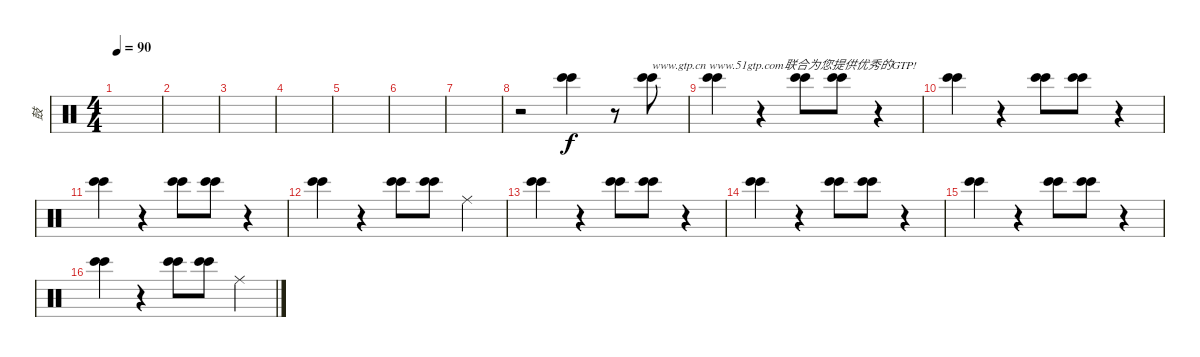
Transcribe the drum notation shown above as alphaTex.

\track ("鼓" "鼓") {instrument percussion}
\staff {score}
\articulation defaults
\ts (4 4)
\tempo 90
\clef neutral
\ks c
|
|
|
|
|
|
|
r.2 ("Bongo High (hit)" "Bongo High (hit)").4 r.8 ("Bongo High (hit)" "Bongo High (hit)").8{txt "www.gtp.cn www.51gtp.com联合为您提供优秀的GTP!"} |
("Bongo High (hit)" "Bongo High (hit)").4 r.4 ("Bongo High (hit)" "Bongo High (hit)").8 ("Bongo High (hit)" "Bongo High (hit)").8 r.4 |
("Bongo High (hit)" "Bongo High (hit)").4 r.4 ("Bongo High (hit)" "Bongo High (hit)").8 ("Bongo High (hit)" "Bongo High (hit)").8 r.4 |
("Bongo High (hit)" "Bongo High (hit)").4 r.4 ("Bongo High (hit)" "Bongo High (hit)").8 ("Bongo High (hit)" "Bongo High (hit)").8 r.4 |
("Bongo High (hit)" "Bongo High (hit)").4 r.4 ("Bongo High (hit)" "Bongo High (hit)").8 ("Bongo High (hit)" "Bongo High (hit)").8 "Ride (middle)".4 |
("Bongo High (hit)" "Bongo High (hit)").4 r.4 ("Bongo High (hit)" "Bongo High (hit)").8 ("Bongo High (hit)" "Bongo High (hit)").8 r.4 |
("Bongo High (hit)" "Bongo High (hit)").4 r.4 ("Bongo High (hit)" "Bongo High (hit)").8 ("Bongo High (hit)" "Bongo High (hit)").8 r.4 |
("Bongo High (hit)" "Bongo High (hit)").4 r.4 ("Bongo High (hit)" "Bongo High (hit)").8 ("Bongo High (hit)" "Bongo High (hit)").8 r.4 |
("Bongo High (hit)" "Bongo High (hit)").4 r.4 ("Bongo High (hit)" "Bongo High (hit)").8 ("Bongo High (hit)" "Bongo High (hit)").8 "Ride (middle)".4
